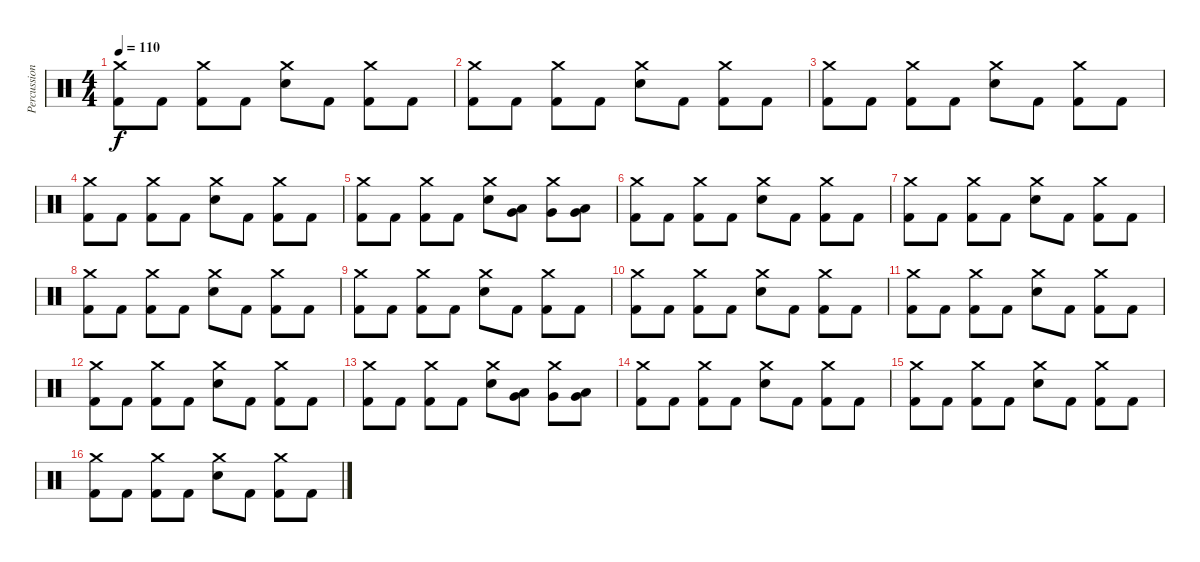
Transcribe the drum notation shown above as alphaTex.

\track ("Percussions" "Percussion") {instrument percussion}
\staff {score}
\articulation defaults
\ts (4 4)
\tempo 110
\clef neutral
\ks c
("Crash medium (hit)" "Kick (hit) 2").8{dy f} "Kick (hit) 2".8 ("Crash medium (hit)" "Kick (hit) 2").8 "Kick (hit) 2".8 ("Crash medium (hit)" "Snare (hit) 2").8 "Kick (hit) 2".8 ("Crash medium (hit)" "Kick (hit) 2").8 "Kick (hit) 2".8 |
("Crash medium (hit)" "Kick (hit) 2").8 "Kick (hit) 2".8 ("Crash medium (hit)" "Kick (hit) 2").8 "Kick (hit) 2".8 ("Crash medium (hit)" "Snare (hit) 2").8 "Kick (hit) 2".8 ("Crash medium (hit)" "Kick (hit) 2").8 "Kick (hit) 2".8 |
("Crash medium (hit)" "Kick (hit) 2").8 "Kick (hit) 2".8 ("Crash medium (hit)" "Kick (hit) 2").8 "Kick (hit) 2".8 ("Crash medium (hit)" "Snare (hit) 2").8 "Kick (hit) 2".8 ("Crash medium (hit)" "Kick (hit) 2").8 "Kick (hit) 2".8 |
("Crash medium (hit)" "Kick (hit) 2").8 "Kick (hit) 2".8 ("Crash medium (hit)" "Kick (hit) 2").8 "Kick (hit) 2".8 ("Crash medium (hit)" "Snare (hit) 2").8 "Kick (hit) 2".8 ("Crash medium (hit)" "Kick (hit) 2").8 "Kick (hit) 2".8 |
("Crash medium (hit)" "Kick (hit) 2").8 "Kick (hit) 2".8 ("Crash medium (hit)" "Kick (hit) 2").8 "Kick (hit) 2".8 ("Crash medium (hit)" "Snare (hit) 2").8 ("Low Tom (hit)" "Very Low Tom (hit)").8 ("Crash medium (hit)" "Very Low Tom (hit)").8 ("Very Low Tom (hit)" "Low Floor Tom (hit)").8 |
("Crash medium (hit)" "Kick (hit) 2").8 "Kick (hit) 2".8 ("Crash medium (hit)" "Kick (hit) 2").8 "Kick (hit) 2".8 ("Crash medium (hit)" "Snare (hit) 2").8 "Kick (hit) 2".8 ("Crash medium (hit)" "Kick (hit) 2").8 "Kick (hit) 2".8 |
("Crash medium (hit)" "Kick (hit) 2").8 "Kick (hit) 2".8 ("Crash medium (hit)" "Kick (hit) 2").8 "Kick (hit) 2".8 ("Crash medium (hit)" "Snare (hit) 2").8 "Kick (hit) 2".8 ("Crash medium (hit)" "Kick (hit) 2").8 "Kick (hit) 2".8 |
("Crash medium (hit)" "Kick (hit) 2").8 "Kick (hit) 2".8 ("Crash medium (hit)" "Kick (hit) 2").8 "Kick (hit) 2".8 ("Crash medium (hit)" "Snare (hit) 2").8 "Kick (hit) 2".8 ("Crash medium (hit)" "Kick (hit) 2").8 "Kick (hit) 2".8 |
("Crash medium (hit)" "Kick (hit) 2").8 "Kick (hit) 2".8 ("Crash medium (hit)" "Kick (hit) 2").8 "Kick (hit) 2".8 ("Crash medium (hit)" "Snare (hit) 2").8 "Kick (hit) 2".8 ("Crash medium (hit)" "Kick (hit) 2").8 "Kick (hit) 2".8 |
("Crash medium (hit)" "Kick (hit) 2").8 "Kick (hit) 2".8 ("Crash medium (hit)" "Kick (hit) 2").8 "Kick (hit) 2".8 ("Crash medium (hit)" "Snare (hit) 2").8 "Kick (hit) 2".8 ("Crash medium (hit)" "Kick (hit) 2").8 "Kick (hit) 2".8 |
("Crash medium (hit)" "Kick (hit) 2").8 "Kick (hit) 2".8 ("Crash medium (hit)" "Kick (hit) 2").8 "Kick (hit) 2".8 ("Crash medium (hit)" "Snare (hit) 2").8 "Kick (hit) 2".8 ("Crash medium (hit)" "Kick (hit) 2").8 "Kick (hit) 2".8 |
("Crash medium (hit)" "Kick (hit) 2").8 "Kick (hit) 2".8 ("Crash medium (hit)" "Kick (hit) 2").8 "Kick (hit) 2".8 ("Crash medium (hit)" "Snare (hit) 2").8 "Kick (hit) 2".8 ("Crash medium (hit)" "Kick (hit) 2").8 "Kick (hit) 2".8 |
("Crash medium (hit)" "Kick (hit) 2").8 "Kick (hit) 2".8 ("Crash medium (hit)" "Kick (hit) 2").8 "Kick (hit) 2".8 ("Crash medium (hit)" "Snare (hit) 2").8 ("Low Tom (hit)" "Very Low Tom (hit)").8 ("Crash medium (hit)" "Very Low Tom (hit)").8 ("Very Low Tom (hit)" "Low Floor Tom (hit)").8 |
("Crash medium (hit)" "Kick (hit) 2").8 "Kick (hit) 2".8 ("Crash medium (hit)" "Kick (hit) 2").8 "Kick (hit) 2".8 ("Crash medium (hit)" "Snare (hit) 2").8 "Kick (hit) 2".8 ("Crash medium (hit)" "Kick (hit) 2").8 "Kick (hit) 2".8 |
("Crash medium (hit)" "Kick (hit) 2").8 "Kick (hit) 2".8 ("Crash medium (hit)" "Kick (hit) 2").8 "Kick (hit) 2".8 ("Crash medium (hit)" "Snare (hit) 2").8 "Kick (hit) 2".8 ("Crash medium (hit)" "Kick (hit) 2").8 "Kick (hit) 2".8 |
("Crash medium (hit)" "Kick (hit) 2").8 "Kick (hit) 2".8 ("Crash medium (hit)" "Kick (hit) 2").8 "Kick (hit) 2".8 ("Crash medium (hit)" "Snare (hit) 2").8 "Kick (hit) 2".8 ("Crash medium (hit)" "Kick (hit) 2").8 "Kick (hit) 2".8
